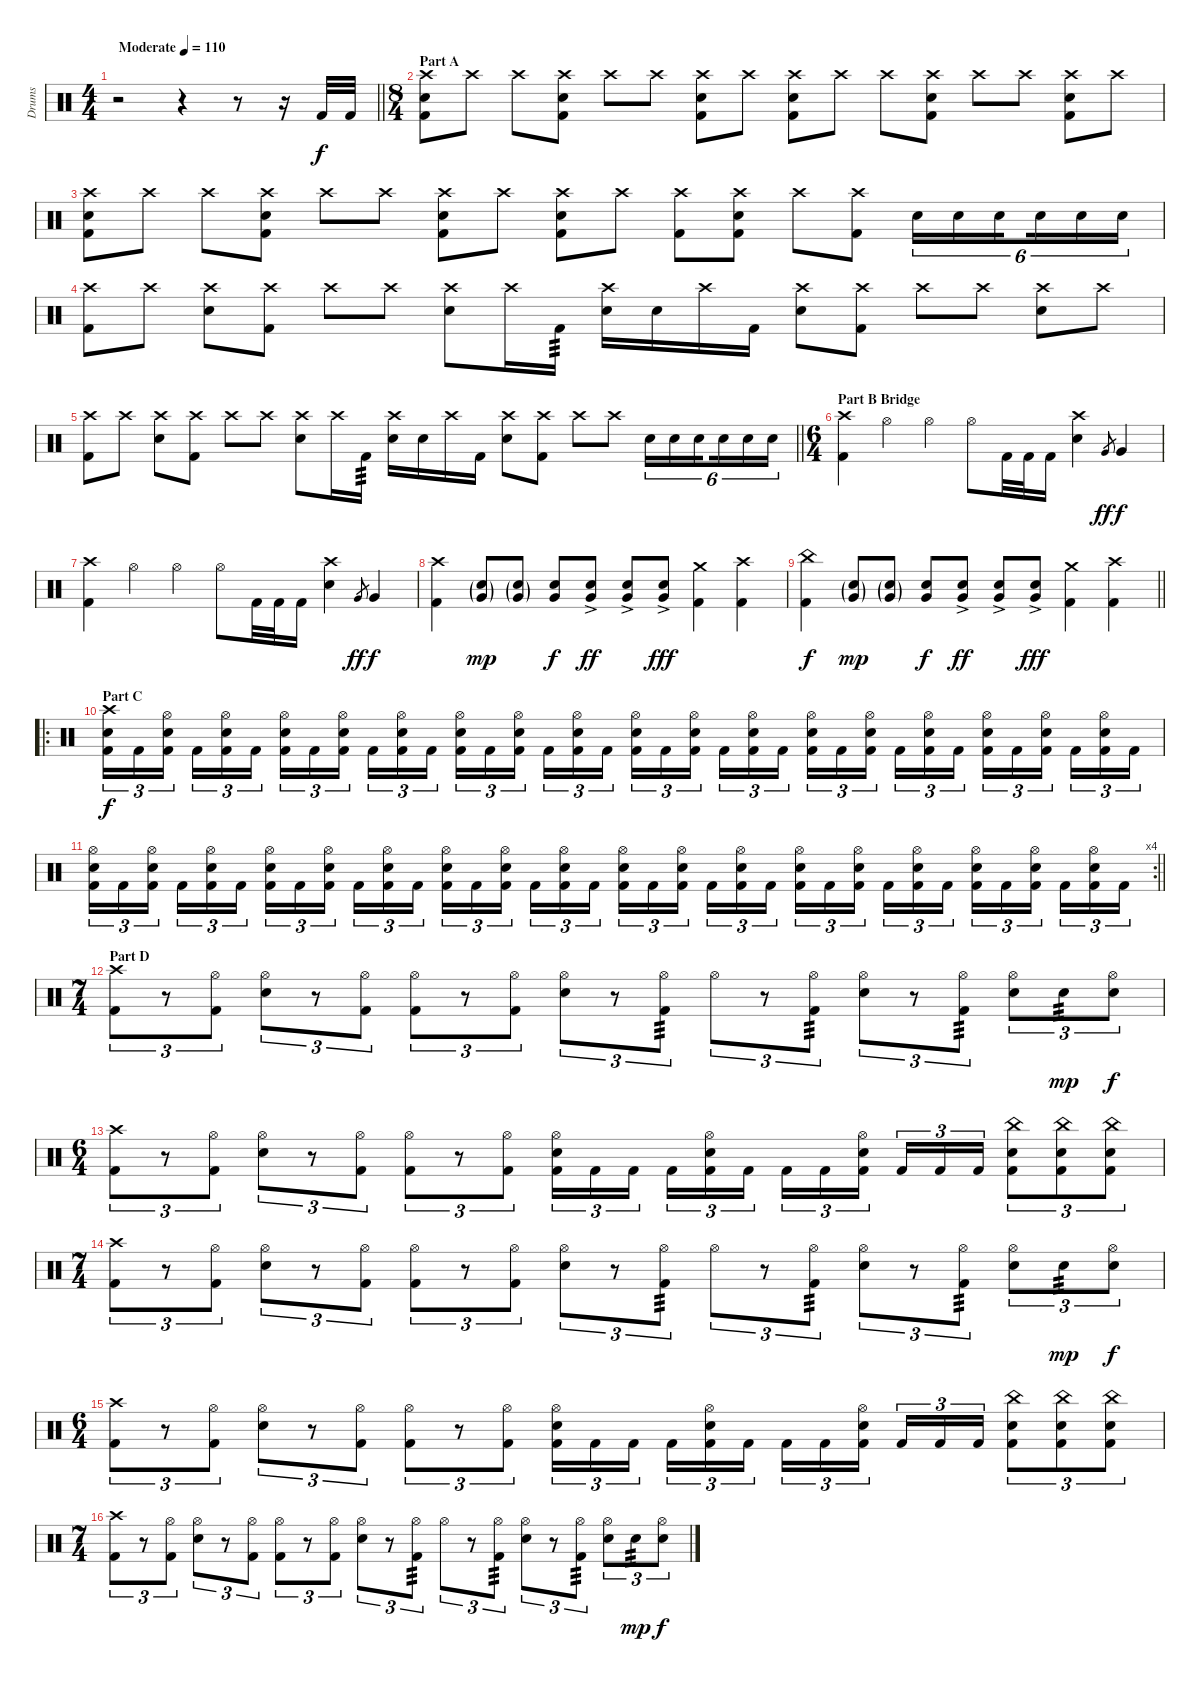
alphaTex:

\track ("Drums" "Drums") {instrument percussion}
\staff {score}
\articulation defaults
\ts (4 4)
\tempo (110 "Moderate")
\clef neutral
\barLineRight lightlight
\ks c
r.2{dy f} r.4 r.8 r.16 "Kick (hit) 2".32 "Kick (hit) 2".32 |
\ts (8 4)
\section ("" "Part A")
("Kick (hit) 2" "Snare (hit) 2" "Crash high (hit)").8 "Crash high (hit)".8 "Crash high (hit)".8 ("Kick (hit) 2" "Snare (hit) 2" "Crash high (hit)").8 "Crash high (hit)".8 "Crash high (hit)".8 ("Kick (hit) 2" "Snare (hit) 2" "Crash high (hit)").8 "Crash high (hit)".8 ("Kick (hit) 2" "Snare (hit) 2" "Crash high (hit)").8 "Crash high (hit)".8 "Crash high (hit)".8 ("Kick (hit) 2" "Snare (hit) 2" "Crash high (hit)").8 "Crash high (hit)".8 "Crash high (hit)".8 ("Kick (hit) 2" "Snare (hit) 2" "Crash high (hit)").8 "Crash high (hit)".8 |
("Kick (hit) 2" "Snare (hit) 2" "Crash high (hit)").8 "Crash high (hit)".8 "Crash high (hit)".8 ("Kick (hit) 2" "Snare (hit) 2" "Crash high (hit)").8 "Crash high (hit)".8 "Crash high (hit)".8 ("Kick (hit) 2" "Snare (hit) 2" "Crash high (hit)").8 "Crash high (hit)".8 ("Kick (hit) 2" "Snare (hit) 2" "Crash high (hit)").8 "Crash high (hit)".8 ("Kick (hit) 2" "Crash high (hit)").8 ("Kick (hit) 2" "Snare (hit) 2" "Crash high (hit)").8 "Crash high (hit)".8 ("Kick (hit) 2" "Crash high (hit)").8 "Snare (hit) 2".16{tu (6 4)} "Snare (hit) 2".16{tu (6 4)} "Snare (hit) 2".16{tu (6 4) beam splitsecondary} "Snare (hit) 2".16{tu (6 4)} "Snare (hit) 2".16{tu (6 4)} "Snare (hit) 2".16{tu (6 4)} |
("Kick (hit) 2" "Crash high (hit)").8 "Crash high (hit)".8 ("Crash high (hit)" "Snare (hit) 2").8 ("Crash high (hit)" "Kick (hit) 2").8 "Crash high (hit)".8 "Crash high (hit)".8 ("Snare (hit) 2" "Crash high (hit)").8 "Crash high (hit)".16 "Kick (hit) 2".16{tp 3} ("Snare (hit) 2" "Crash high (hit)").16 "Snare (hit) 2".16 "Crash high (hit)".16 "Kick (hit) 2".16 ("Crash high (hit)" "Snare (hit) 2").8 ("Kick (hit) 2" "Crash high (hit)").8 "Crash high (hit)".8 "Crash high (hit)".8 ("Crash high (hit)" "Snare (hit) 2").8 "Crash high (hit)".8 |
\barLineRight lightlight
("Kick (hit) 2" "Crash high (hit)").8 "Crash high (hit)".8 ("Crash high (hit)" "Snare (hit) 2").8 ("Crash high (hit)" "Kick (hit) 2").8 "Crash high (hit)".8 "Crash high (hit)".8 ("Snare (hit) 2" "Crash high (hit)").8 "Crash high (hit)".16 "Kick (hit) 2".16{tp 3} ("Snare (hit) 2" "Crash high (hit)").16 "Snare (hit) 2".16 "Crash high (hit)".16 "Kick (hit) 2".16 ("Crash high (hit)" "Snare (hit) 2").8 ("Kick (hit) 2" "Crash high (hit)").8 "Crash high (hit)".8 "Crash high (hit)".8 "Snare (hit) 2".16{tu (6 4)} "Snare (hit) 2".16{tu (6 4)} "Snare (hit) 2".16{tu (6 4) beam splitsecondary} "Snare (hit) 2".16{tu (6 4)} "Snare (hit) 2".16{tu (6 4)} "Snare (hit) 2".16{tu (6 4)} |
\ts (6 4)
\section ("" "Part B Bridge")
("Kick (hit) 2" "Crash high (hit)").4 "Hi-Hat (open)".4 "Hi-Hat (open)".4 "Hi-Hat (open)".8 "Kick (hit) 2".32 "Kick (hit) 2".32 "Kick (hit) 2".16 ("Snare (hit) 2" "Crash high (hit)").4 "Very Low Tom (hit)".8{gr dy ff} "Very Low Tom (hit)".4{dy f} |
("Kick (hit) 2" "Crash high (hit)").4 "Hi-Hat (open)".4 "Hi-Hat (open)".4 "Hi-Hat (open)".8 "Kick (hit) 2".32 "Kick (hit) 2".32 "Kick (hit) 2".16 ("Snare (hit) 2" "Crash high (hit)").4 "Very Low Tom (hit)".8{gr dy ff} "Very Low Tom (hit)".4{dy f} |
("Kick (hit) 2" "Crash high (hit)").4 ("Very Low Tom (hit)"{g} "Snare (hit) 2"{g}).8{dy mp} ("Very Low Tom (hit)"{g} "Snare (hit) 2"{g}).8 ("Very Low Tom (hit)" "Snare (hit) 2").8{dy f} ("Very Low Tom (hit)"{ac} "Snare (hit) 2"{ac}).8{dy ff} ("Very Low Tom (hit)"{ac} "Snare (hit) 2"{ac}).8 ("Very Low Tom (hit)"{ac} "Snare (hit) 2"{ac}).8{dy fff} ("Kick (hit) 2" "Crash medium (hit)").4 ("Kick (hit) 2" "Crash high (hit)").4 |
\barLineRight lightlight
("Kick (hit) 2" "China (hit)").4{dy f} ("Very Low Tom (hit)"{g} "Snare (hit) 2"{g}).8{dy mp} ("Very Low Tom (hit)"{g} "Snare (hit) 2"{g}).8 ("Very Low Tom (hit)" "Snare (hit) 2").8{dy f} ("Very Low Tom (hit)"{ac} "Snare (hit) 2"{ac}).8{dy ff} ("Very Low Tom (hit)"{ac} "Snare (hit) 2"{ac}).8 ("Very Low Tom (hit)"{ac} "Snare (hit) 2"{ac}).8{dy fff} ("Kick (hit) 2" "Crash medium (hit)").4 ("Kick (hit) 2" "Crash high (hit)").4 |
\ro
\section ("" "Part C")
("Snare (hit) 2" "Kick (hit) 2" "Crash high (hit)").16{tu (3 2) dy f} "Kick (hit) 2".16{tu (3 2)} ("Kick (hit) 2" "Snare (hit) 2" "Hi-Hat (open)").16{tu (3 2) beam splitsecondary} "Kick (hit) 2".16{tu (3 2)} ("Kick (hit) 2" "Snare (hit) 2" "Hi-Hat (open)").16{tu (3 2)} "Kick (hit) 2".16{tu (3 2) beam splitsecondary} ("Kick (hit) 2" "Snare (hit) 2" "Hi-Hat (open)").16{tu (3 2)} "Kick (hit) 2".16{tu (3 2)} ("Kick (hit) 2" "Snare (hit) 2" "Hi-Hat (open)").16{tu (3 2) beam splitsecondary} "Kick (hit) 2".16{tu (3 2)} ("Kick (hit) 2" "Snare (hit) 2" "Hi-Hat (open)").16{tu (3 2)} "Kick (hit) 2".16{tu (3 2) beam splitsecondary} ("Snare (hit) 2" "Kick (hit) 2" "Hi-Hat (open)").16{tu (3 2)} "Kick (hit) 2".16{tu (3 2)} ("Kick (hit) 2" "Snare (hit) 2" "Hi-Hat (open)").16{tu (3 2) beam splitsecondary} "Kick (hit) 2".16{tu (3 2)} ("Kick (hit) 2" "Snare (hit) 2" "Hi-Hat (open)").16{tu (3 2)} "Kick (hit) 2".16{tu (3 2)} ("Snare (hit) 2" "Kick (hit) 2" "Hi-Hat (open)").16{tu (3 2)} "Kick (hit) 2".16{tu (3 2)} ("Kick (hit) 2" "Snare (hit) 2" "Hi-Hat (open)").16{tu (3 2) beam splitsecondary} "Kick (hit) 2".16{tu (3 2)} ("Kick (hit) 2" "Snare (hit) 2" "Hi-Hat (open)").16{tu (3 2)} "Kick (hit) 2".16{tu (3 2) beam splitsecondary} ("Kick (hit) 2" "Snare (hit) 2" "Hi-Hat (open)").16{tu (3 2)} "Kick (hit) 2".16{tu (3 2)} ("Kick (hit) 2" "Snare (hit) 2" "Hi-Hat (open)").16{tu (3 2) beam splitsecondary} "Kick (hit) 2".16{tu (3 2)} ("Kick (hit) 2" "Snare (hit) 2" "Hi-Hat (open)").16{tu (3 2)} "Kick (hit) 2".16{tu (3 2) beam splitsecondary} ("Kick (hit) 2" "Snare (hit) 2" "Hi-Hat (open)").16{tu (3 2)} "Kick (hit) 2".16{tu (3 2)} ("Kick (hit) 2" "Snare (hit) 2" "Hi-Hat (open)").16{tu (3 2) beam splitsecondary} "Kick (hit) 2".16{tu (3 2)} ("Kick (hit) 2" "Snare (hit) 2" "Hi-Hat (open)").16{tu (3 2)} "Kick (hit) 2".16{tu (3 2)} |
\rc 4
\barLineRight lightlight
("Snare (hit) 2" "Kick (hit) 2" "Hi-Hat (open)").16{tu (3 2)} "Kick (hit) 2".16{tu (3 2)} ("Kick (hit) 2" "Snare (hit) 2" "Hi-Hat (open)").16{tu (3 2) beam splitsecondary} "Kick (hit) 2".16{tu (3 2)} ("Kick (hit) 2" "Snare (hit) 2" "Hi-Hat (open)").16{tu (3 2)} "Kick (hit) 2".16{tu (3 2) beam splitsecondary} ("Kick (hit) 2" "Snare (hit) 2" "Hi-Hat (open)").16{tu (3 2)} "Kick (hit) 2".16{tu (3 2)} ("Kick (hit) 2" "Snare (hit) 2" "Hi-Hat (open)").16{tu (3 2) beam splitsecondary} "Kick (hit) 2".16{tu (3 2)} ("Kick (hit) 2" "Snare (hit) 2" "Hi-Hat (open)").16{tu (3 2)} "Kick (hit) 2".16{tu (3 2) beam splitsecondary} ("Snare (hit) 2" "Kick (hit) 2" "Hi-Hat (open)").16{tu (3 2)} "Kick (hit) 2".16{tu (3 2)} ("Kick (hit) 2" "Snare (hit) 2" "Hi-Hat (open)").16{tu (3 2) beam splitsecondary} "Kick (hit) 2".16{tu (3 2)} ("Kick (hit) 2" "Snare (hit) 2" "Hi-Hat (open)").16{tu (3 2)} "Kick (hit) 2".16{tu (3 2)} ("Snare (hit) 2" "Kick (hit) 2" "Hi-Hat (open)").16{tu (3 2)} "Kick (hit) 2".16{tu (3 2)} ("Kick (hit) 2" "Snare (hit) 2" "Hi-Hat (open)").16{tu (3 2) beam splitsecondary} "Kick (hit) 2".16{tu (3 2)} ("Kick (hit) 2" "Snare (hit) 2" "Hi-Hat (open)").16{tu (3 2)} "Kick (hit) 2".16{tu (3 2) beam splitsecondary} ("Kick (hit) 2" "Snare (hit) 2" "Hi-Hat (open)").16{tu (3 2)} "Kick (hit) 2".16{tu (3 2)} ("Kick (hit) 2" "Snare (hit) 2" "Hi-Hat (open)").16{tu (3 2) beam splitsecondary} "Kick (hit) 2".16{tu (3 2)} ("Kick (hit) 2" "Snare (hit) 2" "Hi-Hat (open)").16{tu (3 2)} "Kick (hit) 2".16{tu (3 2) beam splitsecondary} ("Kick (hit) 2" "Snare (hit) 2" "Hi-Hat (open)").16{tu (3 2)} "Kick (hit) 2".16{tu (3 2)} ("Kick (hit) 2" "Snare (hit) 2" "Hi-Hat (open)").16{tu (3 2) beam splitsecondary} "Kick (hit) 2".16{tu (3 2)} ("Kick (hit) 2" "Snare (hit) 2" "Hi-Hat (open)").16{tu (3 2)} "Kick (hit) 2".16{tu (3 2)} |
\ts (7 4)
\section ("" "Part D")
("Kick (hit) 2" "Crash high (hit)").8{tu (3 2)} r.8{tu (3 2)} ("Hi-Hat (open)" "Kick (hit) 2").8{tu (3 2)} ("Hi-Hat (open)" "Snare (hit) 2").8{tu (3 2)} r.8{tu (3 2)} ("Hi-Hat (open)" "Kick (hit) 2").8{tu (3 2)} ("Hi-Hat (open)" "Kick (hit) 2").8{tu (3 2)} r.8{tu (3 2)} ("Hi-Hat (open)" "Kick (hit) 2").8{tu (3 2)} ("Hi-Hat (open)" "Snare (hit) 2").8{tu (3 2)} r.8{tu (3 2)} ("Kick (hit) 2" "Hi-Hat (open)").8{tu (3 2) tp 3} "Hi-Hat (open)".8{tu (3 2)} r.8{tu (3 2)} ("Kick (hit) 2" "Hi-Hat (open)").8{tu (3 2) tp 3} ("Hi-Hat (open)" "Snare (hit) 2").8{tu (3 2)} r.8{tu (3 2)} ("Kick (hit) 2" "Hi-Hat (open)").8{tu (3 2) tp 3} ("Snare (hit) 2" "Hi-Hat (open)").8{tu (3 2)} "Snare (hit) 2".8{tu (3 2) tp 3 dy mp} ("Snare (hit) 2" "Hi-Hat (open)").8{tu (3 2) dy f} |
\ts (6 4)
("Kick (hit) 2" "Crash high (hit)").8{tu (3 2)} r.8{tu (3 2)} ("Hi-Hat (open)" "Kick (hit) 2").8{tu (3 2)} ("Hi-Hat (open)" "Snare (hit) 2").8{tu (3 2)} r.8{tu (3 2)} ("Hi-Hat (open)" "Kick (hit) 2").8{tu (3 2)} ("Hi-Hat (open)" "Kick (hit) 2").8{tu (3 2)} r.8{tu (3 2)} ("Hi-Hat (open)" "Kick (hit) 2").8{tu (3 2)} ("Hi-Hat (open)" "Snare (hit) 2" "Kick (hit) 2").16{tu (3 2)} "Kick (hit) 2".16{tu (3 2)} "Kick (hit) 2".16{tu (3 2) beam splitsecondary} "Kick (hit) 2".16{tu (3 2)} ("Kick (hit) 2" "Snare (hit) 2" "Hi-Hat (open)").16{tu (3 2)} "Kick (hit) 2".16{tu (3 2) beam splitsecondary} "Kick (hit) 2".16{tu (3 2)} "Kick (hit) 2".16{tu (3 2)} ("Kick (hit) 2" "Snare (hit) 2" "Hi-Hat (open)").16{tu (3 2) beam splitsecondary} "Kick (hit) 2".16{tu (3 2)} "Kick (hit) 2".16{tu (3 2)} "Kick (hit) 2".16{tu (3 2)} ("Kick (hit) 2" "Snare (hit) 2" "China (hit)").8{tu (3 2)} ("Kick (hit) 2" "Snare (hit) 2" "China (hit)").8{tu (3 2)} ("Snare (hit) 2" "Kick (hit) 2" "China (hit)").8{tu (3 2)} |
\ts (7 4)
("Kick (hit) 2" "Crash high (hit)").8{tu (3 2)} r.8{tu (3 2)} ("Hi-Hat (open)" "Kick (hit) 2").8{tu (3 2)} ("Hi-Hat (open)" "Snare (hit) 2").8{tu (3 2)} r.8{tu (3 2)} ("Hi-Hat (open)" "Kick (hit) 2").8{tu (3 2)} ("Hi-Hat (open)" "Kick (hit) 2").8{tu (3 2)} r.8{tu (3 2)} ("Hi-Hat (open)" "Kick (hit) 2").8{tu (3 2)} ("Hi-Hat (open)" "Snare (hit) 2").8{tu (3 2)} r.8{tu (3 2)} ("Kick (hit) 2" "Hi-Hat (open)").8{tu (3 2) tp 3} "Hi-Hat (open)".8{tu (3 2)} r.8{tu (3 2)} ("Kick (hit) 2" "Hi-Hat (open)").8{tu (3 2) tp 3} ("Hi-Hat (open)" "Snare (hit) 2").8{tu (3 2)} r.8{tu (3 2)} ("Kick (hit) 2" "Hi-Hat (open)").8{tu (3 2) tp 3} ("Snare (hit) 2" "Hi-Hat (open)").8{tu (3 2)} "Snare (hit) 2".8{tu (3 2) tp 3 dy mp} ("Snare (hit) 2" "Hi-Hat (open)").8{tu (3 2) dy f} |
\ts (6 4)
("Kick (hit) 2" "Crash high (hit)").8{tu (3 2)} r.8{tu (3 2)} ("Hi-Hat (open)" "Kick (hit) 2").8{tu (3 2)} ("Hi-Hat (open)" "Snare (hit) 2").8{tu (3 2)} r.8{tu (3 2)} ("Hi-Hat (open)" "Kick (hit) 2").8{tu (3 2)} ("Hi-Hat (open)" "Kick (hit) 2").8{tu (3 2)} r.8{tu (3 2)} ("Hi-Hat (open)" "Kick (hit) 2").8{tu (3 2)} ("Hi-Hat (open)" "Snare (hit) 2" "Kick (hit) 2").16{tu (3 2)} "Kick (hit) 2".16{tu (3 2)} "Kick (hit) 2".16{tu (3 2) beam splitsecondary} "Kick (hit) 2".16{tu (3 2)} ("Kick (hit) 2" "Snare (hit) 2" "Hi-Hat (open)").16{tu (3 2)} "Kick (hit) 2".16{tu (3 2) beam splitsecondary} "Kick (hit) 2".16{tu (3 2)} "Kick (hit) 2".16{tu (3 2)} ("Kick (hit) 2" "Snare (hit) 2" "Hi-Hat (open)").16{tu (3 2) beam splitsecondary} "Kick (hit) 2".16{tu (3 2)} "Kick (hit) 2".16{tu (3 2)} "Kick (hit) 2".16{tu (3 2)} ("Kick (hit) 2" "Snare (hit) 2" "China (hit)").8{tu (3 2)} ("Kick (hit) 2" "Snare (hit) 2" "China (hit)").8{tu (3 2)} ("Snare (hit) 2" "Kick (hit) 2" "China (hit)").8{tu (3 2)} |
\ts (7 4)
("Kick (hit) 2" "Crash high (hit)").8{tu (3 2)} r.8{tu (3 2)} ("Hi-Hat (open)" "Kick (hit) 2").8{tu (3 2)} ("Hi-Hat (open)" "Snare (hit) 2").8{tu (3 2)} r.8{tu (3 2)} ("Hi-Hat (open)" "Kick (hit) 2").8{tu (3 2)} ("Hi-Hat (open)" "Kick (hit) 2").8{tu (3 2)} r.8{tu (3 2)} ("Hi-Hat (open)" "Kick (hit) 2").8{tu (3 2)} ("Hi-Hat (open)" "Snare (hit) 2").8{tu (3 2)} r.8{tu (3 2)} ("Kick (hit) 2" "Hi-Hat (open)").8{tu (3 2) tp 3} "Hi-Hat (open)".8{tu (3 2)} r.8{tu (3 2)} ("Kick (hit) 2" "Hi-Hat (open)").8{tu (3 2) tp 3} ("Hi-Hat (open)" "Snare (hit) 2").8{tu (3 2)} r.8{tu (3 2)} ("Kick (hit) 2" "Hi-Hat (open)").8{tu (3 2) tp 3} ("Snare (hit) 2" "Hi-Hat (open)").8{tu (3 2)} "Snare (hit) 2".8{tu (3 2) tp 3 dy mp} ("Snare (hit) 2" "Hi-Hat (open)").8{tu (3 2) dy f}
